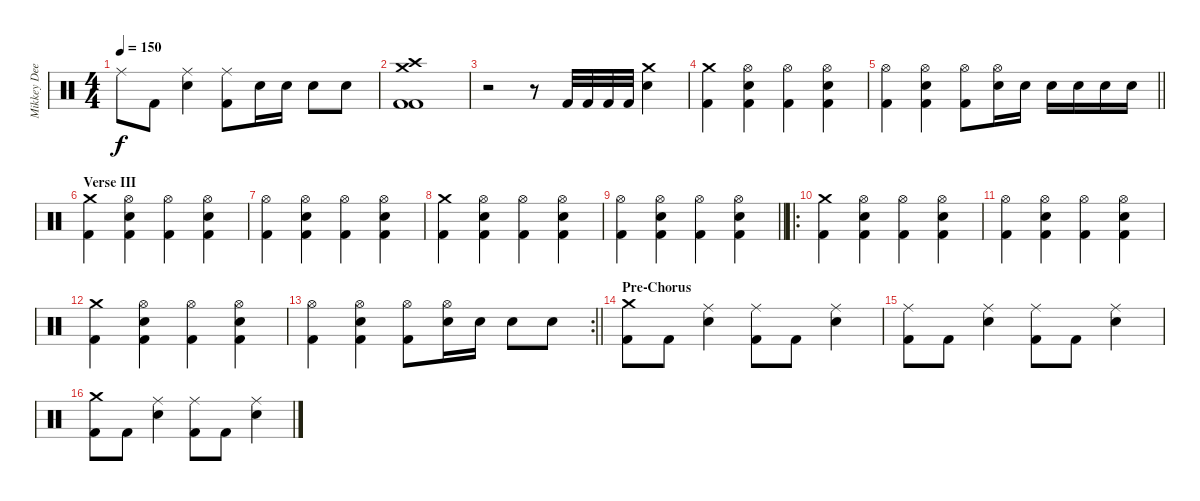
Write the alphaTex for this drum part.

\track ("Mikkey Dee" "Mikkey Dee") {instrument percussion}
\staff {score}
\articulation defaults
\ts (4 4)
\tempo 150
\clef neutral
\ks c "Ride (middle)".8{dy f} "Kick (hit) 2".8
("Ride (middle)" "Electric Snare (hit)").4 ("Ride (middle)" "Kick (hit) 2").8 "Electric Snare (hit)".16 "Electric Snare (hit)".16 "Electric Snare (hit)".8 "Electric Snare (hit)".8 |
("Crash high (hit)" "Crash medium (hit)" "Kick (hit) 2" "Kick (hit) 2").1 |
r.2 r.8 "Kick (hit) 2".32 "Kick (hit) 2".32 "Kick (hit) 2".32 "Kick (hit) 2".32 ("Crash medium (hit)" "Electric Snare (hit)").4 |
("Crash medium (hit)" "Kick (hit) 2").4 ("Hi-Hat (open)" "Electric Snare (hit)" "Kick (hit) 2").4 ("Hi-Hat (open)" "Kick (hit) 2").4 ("Hi-Hat (open)" "Electric Snare (hit)" "Kick (hit) 2").4 |
\barLineRight lightlight
("Hi-Hat (open)" "Kick (hit) 2").4 ("Hi-Hat (open)" "Electric Snare (hit)" "Kick (hit) 2").4 ("Hi-Hat (open)" "Kick (hit) 2").8 ("Hi-Hat (open)" "Electric Snare (hit)").16 "Electric Snare (hit)".16 "Electric Snare (hit)".16 "Electric Snare (hit)".16 "Electric Snare (hit)".16 "Electric Snare (hit)".16 |
\section ("" "Verse III")
("Crash medium (hit)" "Kick (hit) 2").4 ("Hi-Hat (open)" "Electric Snare (hit)" "Kick (hit) 2").4 ("Hi-Hat (open)" "Kick (hit) 2").4 ("Hi-Hat (open)" "Electric Snare (hit)" "Kick (hit) 2").4 |
("Hi-Hat (open)" "Kick (hit) 2").4 ("Hi-Hat (open)" "Electric Snare (hit)" "Kick (hit) 2").4 ("Hi-Hat (open)" "Kick (hit) 2").4 ("Hi-Hat (open)" "Electric Snare (hit)" "Kick (hit) 2").4 |
("Crash medium (hit)" "Kick (hit) 2").4 ("Hi-Hat (open)" "Electric Snare (hit)" "Kick (hit) 2").4 ("Hi-Hat (open)" "Kick (hit) 2").4 ("Hi-Hat (open)" "Electric Snare (hit)" "Kick (hit) 2").4 |
\barLineRight lightlight
("Hi-Hat (open)" "Kick (hit) 2").4 ("Hi-Hat (open)" "Electric Snare (hit)" "Kick (hit) 2").4 ("Hi-Hat (open)" "Kick (hit) 2").4 ("Hi-Hat (open)" "Electric Snare (hit)" "Kick (hit) 2").4 |
\ro
("Crash medium (hit)" "Kick (hit) 2").4 ("Hi-Hat (open)" "Electric Snare (hit)" "Kick (hit) 2").4 ("Hi-Hat (open)" "Kick (hit) 2").4 ("Hi-Hat (open)" "Electric Snare (hit)" "Kick (hit) 2").4 |
("Hi-Hat (open)" "Kick (hit) 2").4 ("Hi-Hat (open)" "Electric Snare (hit)" "Kick (hit) 2").4 ("Hi-Hat (open)" "Kick (hit) 2").4 ("Hi-Hat (open)" "Electric Snare (hit)" "Kick (hit) 2").4 |
("Crash medium (hit)" "Kick (hit) 2").4 ("Hi-Hat (open)" "Electric Snare (hit)" "Kick (hit) 2").4 ("Hi-Hat (open)" "Kick (hit) 2").4 ("Hi-Hat (open)" "Electric Snare (hit)" "Kick (hit) 2").4 |
\rc 2
\barLineRight lightlight
("Hi-Hat (open)" "Kick (hit) 2").4 ("Hi-Hat (open)" "Electric Snare (hit)" "Kick (hit) 2").4 ("Hi-Hat (open)" "Kick (hit) 2").8 ("Hi-Hat (open)" "Electric Snare (hit)").16 "Electric Snare (hit)".16 "Electric Snare (hit)".8 "Electric Snare (hit)".8 |
\section ("" "Pre-Chorus")
("Crash medium (hit)" "Kick (hit) 2").8 "Kick (hit) 2".8 ("Ride (middle)" "Electric Snare (hit)").4 ("Ride (middle)" "Kick (hit) 2").8 "Kick (hit) 2".8 ("Ride (middle)" "Electric Snare (hit)").4 |
("Ride (middle)" "Kick (hit) 2").8 "Kick (hit) 2".8 ("Ride (middle)" "Electric Snare (hit)").4 ("Ride (middle)" "Kick (hit) 2").8 "Kick (hit) 2".8 ("Ride (middle)" "Electric Snare (hit)").4 |
("Crash medium (hit)" "Kick (hit) 2").8 "Kick (hit) 2".8 ("Ride (middle)" "Electric Snare (hit)").4 ("Ride (middle)" "Kick (hit) 2").8 "Kick (hit) 2".8 ("Ride (middle)" "Electric Snare (hit)").4
